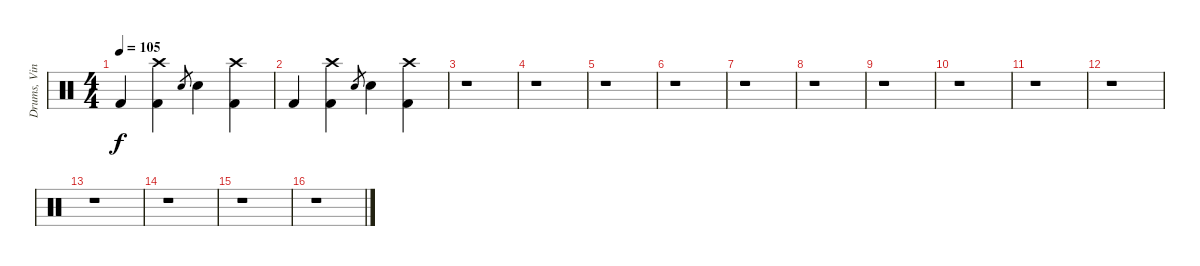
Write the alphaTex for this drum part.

\track ("Drums, Vinnie" "Drums, Vin") {instrument percussion}
\staff {score}
\articulation defaults
\ts (4 4)
\tempo 105
\clef neutral
\ks c "Kick (hit) 2".4{dy f}
("Crash high (hit)" "Kick (hit) 2").4 "Electric Snare (hit)".8{gr} "Electric Snare (hit)".4 ("Crash high (hit)" "Kick (hit) 2").4 |
"Kick (hit) 2".4 ("Crash high (hit)" "Kick (hit) 2").4 "Electric Snare (hit)".8{gr} "Electric Snare (hit)".4 ("Crash high (hit)" "Kick (hit) 2").4 |
r.1 |
r.1 |
r.1 |
r.1 |
r.1 |
r.1 |
r.1 |
r.1 |
r.1 |
r.1 |
r.1 |
r.1 |
r.1 |
r.1
